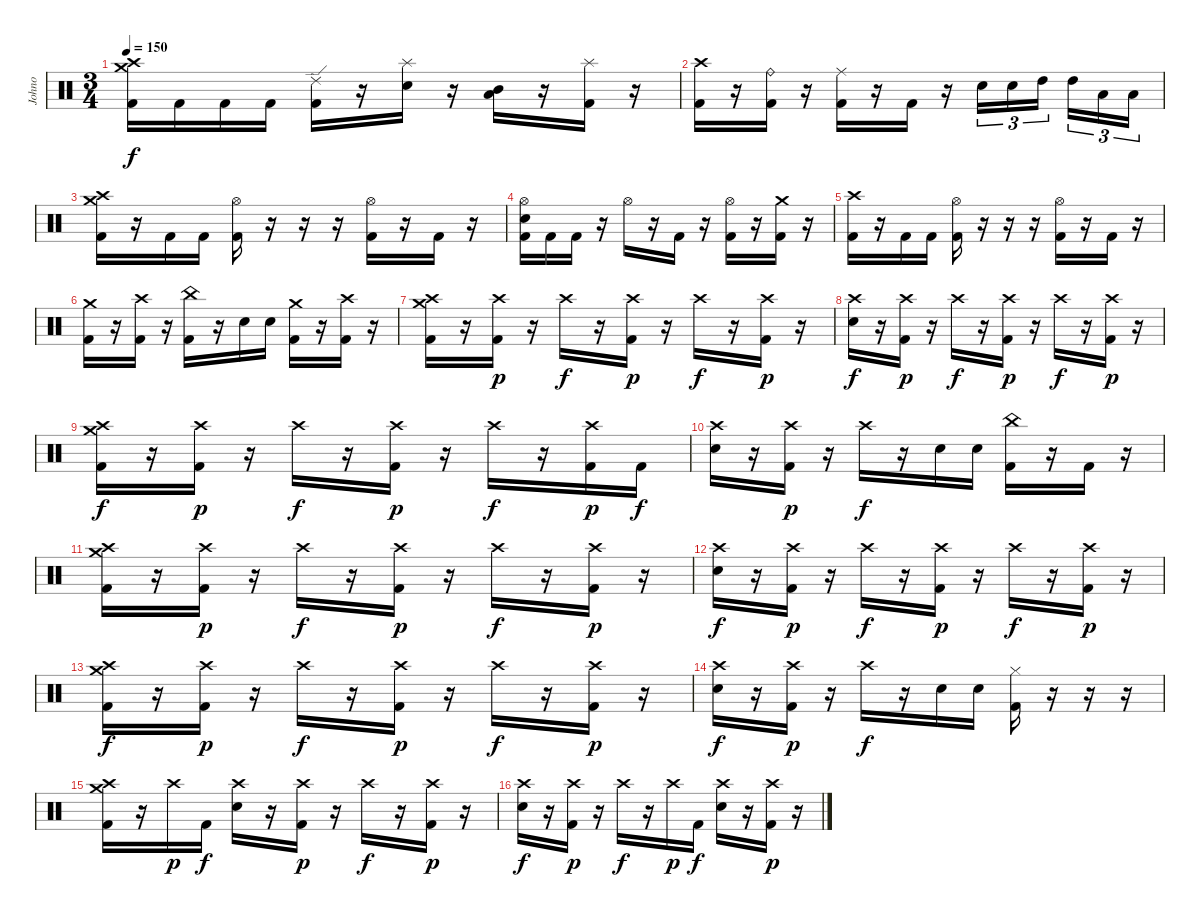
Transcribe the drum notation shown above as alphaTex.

\track ("Johno" "Johno") {instrument percussion}
\staff {score}
\articulation defaults
\ts (3 4)
\tempo 150
\clef neutral
\ks c
("Crash medium (hit)" "Crash high (hit)" "Kick (hit) 2").16{dy f} "Kick (hit) 2".16 "Kick (hit) 2".16 "Kick (hit) 2".16 ("Ride (edge) 2" "Kick (hit) 2").16 r.16 ("Splash (hit)" "Electric Snare (hit)").16 r.16 ("Low Floor Tom (hit)" "Mid Tom (hit)").16 r.16 ("Splash (hit)" "Kick (hit) 2").16 r.16 |
("Crash high (hit)" "Kick (hit) 2").16 r.16 ("Ride (bell)" "Kick (hit) 2").16 r.16 ("Ride (middle)" "Kick (hit) 2").16 r.16 "Kick (hit) 2".16 r.16 "Electric Snare (hit)".16{tu (3 2)} "Electric Snare (hit)".16{tu (3 2)} "High Tom (hit)".16{tu (3 2) beam splitsecondary} "High Tom (hit)".16{tu (3 2)} "Low Floor Tom (hit)".16{tu (3 2)} "Low Floor Tom (hit)".16{tu (3 2)} |
("Crash medium (hit)" "Crash high (hit)" "Kick (hit) 2").16 r.16 "Kick (hit) 2".16 "Kick (hit) 2".16 ("Hi-Hat (open)" "Kick (hit) 2").16 r.16 r.16 r.16 ("Hi-Hat (open)" "Kick (hit) 2").16 r.16 "Kick (hit) 2".16 r.16 |
("Hi-Hat (open)" "Electric Snare (hit)" "Kick (hit) 2").16 "Kick (hit) 2".16 "Kick (hit) 2".16 r.16 "Hi-Hat (open)".16 r.16 "Kick (hit) 2".16 r.16 ("Hi-Hat (open)" "Kick (hit) 2").16 r.16 ("Crash medium (hit)" "Kick (hit) 2").16 r.16 |
("Crash high (hit)" "Kick (hit) 2").16 r.16 "Kick (hit) 2".16 "Kick (hit) 2".16 ("Hi-Hat (open)" "Kick (hit) 2").16 r.16 r.16 r.16 ("Hi-Hat (open)" "Kick (hit) 2").16 r.16 "Kick (hit) 2".16 r.16 |
("Crash medium (hit)" "Kick (hit) 2").16 r.16 ("Crash high (hit)" "Kick (hit) 2").16 r.16 ("China (hit)" "Kick (hit) 2").16 r.16 "Electric Snare (hit)".16 "Electric Snare (hit)".16 ("Crash medium (hit)" "Kick (hit) 2").16 r.16 ("Crash high (hit)" "Kick (hit) 2").16 r.16 |
("Crash medium (hit)" "Crash high (hit)" "Kick (hit) 2").16 r.16 ("Crash high (hit)" "Kick (hit) 2").16{dy p} r.16 "Crash high (hit)".16{dy f} r.16 ("Crash high (hit)" "Kick (hit) 2").16{dy p} r.16 "Crash high (hit)".16{dy f} r.16 ("Crash high (hit)" "Kick (hit) 2").16{dy p} r.16 |
("Crash high (hit)" "Electric Snare (hit)").16{dy f} r.16 ("Crash high (hit)" "Kick (hit) 2").16{dy p} r.16 "Crash high (hit)".16{dy f} r.16 ("Crash high (hit)" "Kick (hit) 2").16{dy p} r.16 "Crash high (hit)".16{dy f} r.16 ("Crash high (hit)" "Kick (hit) 2").16{dy p} r.16 |
("Crash medium (hit)" "Crash high (hit)" "Kick (hit) 2").16{dy f} r.16 ("Crash high (hit)" "Kick (hit) 2").16{dy p} r.16 "Crash high (hit)".16{dy f} r.16 ("Crash high (hit)" "Kick (hit) 2").16{dy p} r.16 "Crash high (hit)".16{dy f} r.16 ("Crash high (hit)" "Kick (hit) 2").16{dy p} "Kick (hit) 2".16{dy f} |
("Crash high (hit)" "Electric Snare (hit)").16 r.16 ("Crash high (hit)" "Kick (hit) 2").16{dy p} r.16 "Crash high (hit)".16{dy f} r.16 "Electric Snare (hit)".16 "Electric Snare (hit)".16 ("China (hit)" "Kick (hit) 2").16 r.16 "Kick (hit) 2".16 r.16 |
("Crash medium (hit)" "Crash high (hit)" "Kick (hit) 2").16 r.16 ("Crash high (hit)" "Kick (hit) 2").16{dy p} r.16 "Crash high (hit)".16{dy f} r.16 ("Crash high (hit)" "Kick (hit) 2").16{dy p} r.16 "Crash high (hit)".16{dy f} r.16 ("Crash high (hit)" "Kick (hit) 2").16{dy p} r.16 |
("Crash high (hit)" "Electric Snare (hit)").16{dy f} r.16 ("Crash high (hit)" "Kick (hit) 2").16{dy p} r.16 "Crash high (hit)".16{dy f} r.16 ("Crash high (hit)" "Kick (hit) 2").16{dy p} r.16 "Crash high (hit)".16{dy f} r.16 ("Crash high (hit)" "Kick (hit) 2").16{dy p} r.16 |
("Crash medium (hit)" "Crash high (hit)" "Kick (hit) 2").16{dy f} r.16 ("Crash high (hit)" "Kick (hit) 2").16{dy p} r.16 "Crash high (hit)".16{dy f} r.16 ("Crash high (hit)" "Kick (hit) 2").16{dy p} r.16 "Crash high (hit)".16{dy f} r.16 ("Crash high (hit)" "Kick (hit) 2").16{dy p} r.16 |
("Crash high (hit)" "Electric Snare (hit)").16{dy f} r.16 ("Crash high (hit)" "Kick (hit) 2").16{dy p} r.16 "Crash high (hit)".16{dy f} r.16 "Electric Snare (hit)".16 "Electric Snare (hit)".16 ("Hi-Hat (closed)" "Kick (hit) 2").16 r.16 r.16 r.16 |
("Crash medium (hit)" "Crash high (hit)" "Kick (hit) 2").16 r.16 "Crash high (hit)".16{dy p} "Kick (hit) 2".16{dy f} ("Crash high (hit)" "Electric Snare (hit)").16 r.16 ("Crash high (hit)" "Kick (hit) 2").16{dy p} r.16 "Crash high (hit)".16{dy f} r.16 ("Crash high (hit)" "Kick (hit) 2").16{dy p} r.16 |
("Crash high (hit)" "Electric Snare (hit)").16{dy f} r.16 ("Crash high (hit)" "Kick (hit) 2").16{dy p} r.16 "Crash high (hit)".16{dy f} r.16 "Crash high (hit)".16{dy p} "Kick (hit) 2".16{dy f} ("Crash high (hit)" "Electric Snare (hit)").16 r.16 ("Crash high (hit)" "Kick (hit) 2").16{dy p} r.16
